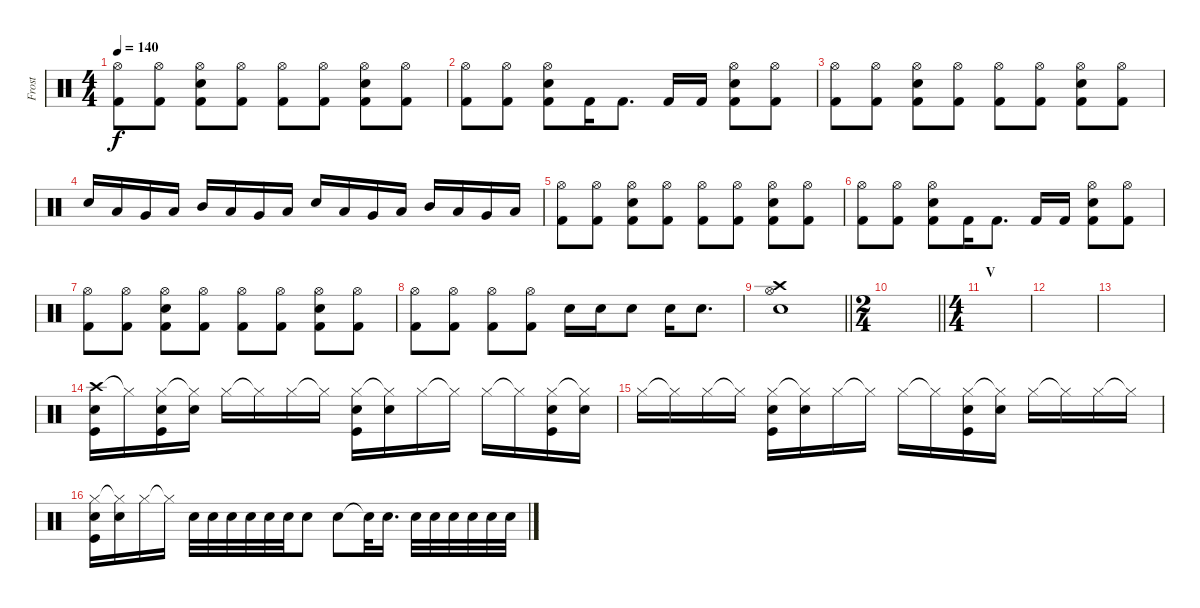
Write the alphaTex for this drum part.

\track ("Frost" "Frost") {instrument percussion}
\staff {score}
\articulation defaults
\ts (4 4)
\tempo 140
\clef neutral
\ks c
("Hi-Hat (open)" "Kick (hit) 2").8{dy f} ("Hi-Hat (open)" "Kick (hit) 2").8 ("Hi-Hat (open)" "Snare (hit) 2" "Kick (hit) 2").8 ("Hi-Hat (open)" "Kick (hit) 2").8 ("Hi-Hat (open)" "Kick (hit) 2").8 ("Hi-Hat (open)" "Kick (hit) 2").8 ("Hi-Hat (open)" "Snare (hit) 2" "Kick (hit) 2").8 ("Hi-Hat (open)" "Kick (hit) 2").8 |
("Hi-Hat (open)" "Kick (hit) 2").8 ("Hi-Hat (open)" "Kick (hit) 2").8 ("Hi-Hat (open)" "Snare (hit) 2" "Kick (hit) 2").8 "Kick (hit) 2".16 "Kick (hit) 2".8{d} "Kick (hit) 2".16 "Kick (hit) 2".16 ("Hi-Hat (open)" "Snare (hit) 2" "Kick (hit) 2").8 ("Hi-Hat (open)" "Kick (hit) 2").8 |
("Hi-Hat (open)" "Kick (hit) 2").8 ("Hi-Hat (open)" "Kick (hit) 2").8 ("Hi-Hat (open)" "Snare (hit) 2" "Kick (hit) 2").8 ("Hi-Hat (open)" "Kick (hit) 2").8 ("Hi-Hat (open)" "Kick (hit) 2").8 ("Hi-Hat (open)" "Kick (hit) 2").8 ("Hi-Hat (open)" "Snare (hit) 2" "Kick (hit) 2").8 ("Hi-Hat (open)" "Kick (hit) 2").8 |
"Snare (hit) 2".16 "Low Floor Tom (hit)".16 "Very Low Tom (hit)".16 "Low Tom (hit)".16 "Mid Tom (hit)".16 "Low Tom (hit)".16 "Very Low Tom (hit)".16 "Low Floor Tom (hit)".16 "Snare (hit) 2".16 "Low Floor Tom (hit)".16 "Very Low Tom (hit)".16 "Low Tom (hit)".16 "Mid Tom (hit)".16 "Low Tom (hit)".16 "Very Low Tom (hit)".16 "Low Floor Tom (hit)".16 |
("Hi-Hat (open)" "Kick (hit) 2").8 ("Hi-Hat (open)" "Kick (hit) 2").8 ("Hi-Hat (open)" "Snare (hit) 2" "Kick (hit) 2").8 ("Hi-Hat (open)" "Kick (hit) 2").8 ("Hi-Hat (open)" "Kick (hit) 2").8 ("Hi-Hat (open)" "Kick (hit) 2").8 ("Hi-Hat (open)" "Snare (hit) 2" "Kick (hit) 2").8 ("Hi-Hat (open)" "Kick (hit) 2").8 |
("Hi-Hat (open)" "Kick (hit) 2").8 ("Hi-Hat (open)" "Kick (hit) 2").8 ("Hi-Hat (open)" "Snare (hit) 2" "Kick (hit) 2").8 "Kick (hit) 2".16 "Kick (hit) 2".8{d} "Kick (hit) 2".16 "Kick (hit) 2".16 ("Hi-Hat (open)" "Snare (hit) 2" "Kick (hit) 2").8 ("Hi-Hat (open)" "Kick (hit) 2").8 |
("Hi-Hat (open)" "Kick (hit) 2").8 ("Hi-Hat (open)" "Kick (hit) 2").8 ("Hi-Hat (open)" "Snare (hit) 2" "Kick (hit) 2").8 ("Hi-Hat (open)" "Kick (hit) 2").8 ("Hi-Hat (open)" "Kick (hit) 2").8 ("Hi-Hat (open)" "Kick (hit) 2").8 ("Hi-Hat (open)" "Snare (hit) 2" "Kick (hit) 2").8 ("Hi-Hat (open)" "Kick (hit) 2").8 |
("Hi-Hat (open)" "Kick (hit) 2").8 ("Hi-Hat (open)" "Kick (hit) 2").8 ("Hi-Hat (open)" "Kick (hit) 2").8 ("Hi-Hat (open)" "Kick (hit) 2").8 "Snare (hit) 2".16 "Snare (hit) 2".16 "Snare (hit) 2".8 "Snare (hit) 2".16 "Snare (hit) 2".8{d} |
\barLineRight lightlight
("Crash high (hit)" "Hi-Hat (open)" "Snare (hit) 2").1 |
\ts (2 4)
\barLineRight lightlight
|
\ts (4 4)
\section ("" "V")
|
|
|
("Crash high (hit)" "Electric Snare (hit)" "Kick (hit)").16 "Hi-Hat (closed)"{t}.16 ("Hi-Hat (closed)" "Electric Snare (hit)" "Kick (hit)").16 ("Hi-Hat (closed)"{t} "Electric Snare (hit)").16 "Hi-Hat (closed)".16 "Hi-Hat (closed)"{t}.16 "Hi-Hat (closed)".16 "Hi-Hat (closed)"{t}.16 ("Hi-Hat (closed)" "Electric Snare (hit)" "Kick (hit)").16 ("Hi-Hat (closed)"{t} "Electric Snare (hit)").16 "Hi-Hat (closed)".16 "Hi-Hat (closed)"{t}.16 "Hi-Hat (closed)".16 "Hi-Hat (closed)"{t}.16 ("Hi-Hat (closed)" "Electric Snare (hit)" "Kick (hit)").16 ("Hi-Hat (closed)"{t} "Electric Snare (hit)").16 |
"Hi-Hat (closed)".16 "Hi-Hat (closed)"{t}.16 "Hi-Hat (closed)".16 "Hi-Hat (closed)"{t}.16 ("Hi-Hat (closed)" "Electric Snare (hit)" "Kick (hit)").16 ("Hi-Hat (closed)"{t} "Electric Snare (hit)").16 "Hi-Hat (closed)".16 "Hi-Hat (closed)"{t}.16 "Hi-Hat (closed)".16 "Hi-Hat (closed)"{t}.16 ("Hi-Hat (closed)" "Electric Snare (hit)" "Kick (hit)").16 ("Hi-Hat (closed)"{t} "Electric Snare (hit)").16 "Hi-Hat (closed)".16 "Hi-Hat (closed)"{t}.16 "Hi-Hat (closed)".16 "Hi-Hat (closed)"{t}.16 |
("Hi-Hat (closed)" "Electric Snare (hit)" "Kick (hit)").16 ("Hi-Hat (closed)"{t} "Electric Snare (hit)").16 "Hi-Hat (closed)".16 "Hi-Hat (closed)"{t}.16 "Electric Snare (hit)".32 "Electric Snare (hit)".32 "Electric Snare (hit)".32 "Electric Snare (hit)".32 "Electric Snare (hit)".32 "Electric Snare (hit)".32 "Electric Snare (hit)".8 "Electric Snare (hit)".8 "Electric Snare (hit)"{t}.32 "Electric Snare (hit)".16{d} "Electric Snare (hit)".32 "Electric Snare (hit)".32 "Electric Snare (hit)".32 "Electric Snare (hit)".32 "Electric Snare (hit)".32 "Electric Snare (hit)".32
